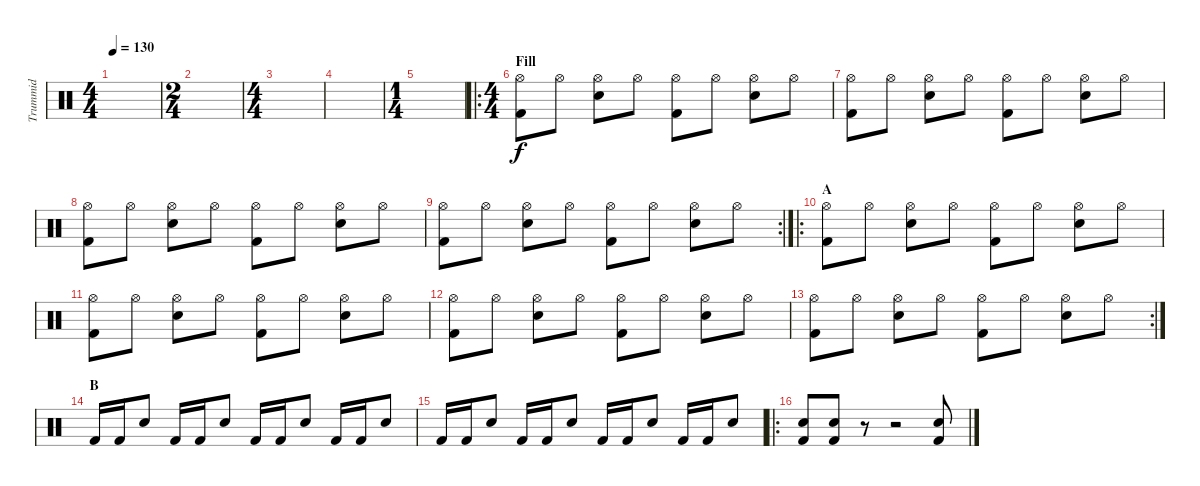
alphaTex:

\track ("Trummid" "Trummid") {instrument percussion}
\staff {score}
\articulation defaults
\ts (4 4)
\tempo 130
\clef neutral
\ks c
|
\ts (2 4)
|
\ts (4 4)
|
|
\ts (1 4)
|
\ro
\ts (4 4)
\section ("" "Fill")
("Hi-Hat (open)" "Kick (hit) 2").8 "Hi-Hat (open)".8 ("Hi-Hat (open)" "Snare (hit) 2").8 "Hi-Hat (open)".8 ("Hi-Hat (open)" "Kick (hit) 2").8 "Hi-Hat (open)".8 ("Hi-Hat (open)" "Snare (hit) 2").8 "Hi-Hat (open)".8 |
("Hi-Hat (open)" "Kick (hit) 2").8 "Hi-Hat (open)".8 ("Hi-Hat (open)" "Snare (hit) 2").8 "Hi-Hat (open)".8 ("Hi-Hat (open)" "Kick (hit) 2").8 "Hi-Hat (open)".8 ("Hi-Hat (open)" "Snare (hit) 2").8 "Hi-Hat (open)".8 |
("Hi-Hat (open)" "Kick (hit) 2").8 "Hi-Hat (open)".8 ("Hi-Hat (open)" "Snare (hit) 2").8 "Hi-Hat (open)".8 ("Hi-Hat (open)" "Kick (hit) 2").8 "Hi-Hat (open)".8 ("Hi-Hat (open)" "Snare (hit) 2").8 "Hi-Hat (open)".8 |
\rc 2
("Hi-Hat (open)" "Kick (hit) 2").8 "Hi-Hat (open)".8 ("Hi-Hat (open)" "Snare (hit) 2").8 "Hi-Hat (open)".8 ("Hi-Hat (open)" "Kick (hit) 2").8 "Hi-Hat (open)".8 ("Hi-Hat (open)" "Snare (hit) 2").8 "Hi-Hat (open)".8 |
\ro
\section ("" "A")
("Hi-Hat (open)" "Kick (hit) 2").8 "Hi-Hat (open)".8 ("Hi-Hat (open)" "Snare (hit) 2").8 "Hi-Hat (open)".8 ("Hi-Hat (open)" "Kick (hit) 2").8 "Hi-Hat (open)".8 ("Hi-Hat (open)" "Snare (hit) 2").8 "Hi-Hat (open)".8 |
("Hi-Hat (open)" "Kick (hit) 2").8 "Hi-Hat (open)".8 ("Hi-Hat (open)" "Snare (hit) 2").8 "Hi-Hat (open)".8 ("Hi-Hat (open)" "Kick (hit) 2").8 "Hi-Hat (open)".8 ("Hi-Hat (open)" "Snare (hit) 2").8 "Hi-Hat (open)".8 |
("Hi-Hat (open)" "Kick (hit) 2").8 "Hi-Hat (open)".8 ("Hi-Hat (open)" "Snare (hit) 2").8 "Hi-Hat (open)".8 ("Hi-Hat (open)" "Kick (hit) 2").8 "Hi-Hat (open)".8 ("Hi-Hat (open)" "Snare (hit) 2").8 "Hi-Hat (open)".8 |
\rc 2
("Hi-Hat (open)" "Kick (hit) 2").8 "Hi-Hat (open)".8 ("Hi-Hat (open)" "Snare (hit) 2").8 "Hi-Hat (open)".8 ("Hi-Hat (open)" "Kick (hit) 2").8 "Hi-Hat (open)".8 ("Hi-Hat (open)" "Snare (hit) 2").8 "Hi-Hat (open)".8 |
\section ("" "B")
"Kick (hit) 2".16 "Kick (hit) 2".16 "Snare (hit) 2".8 "Kick (hit) 2".16 "Kick (hit) 2".16 "Snare (hit) 2".8 "Kick (hit) 2".16 "Kick (hit) 2".16 "Snare (hit) 2".8 "Kick (hit) 2".16 "Kick (hit) 2".16 "Snare (hit) 2".8 |
"Kick (hit) 2".16 "Kick (hit) 2".16 "Snare (hit) 2".8 "Kick (hit) 2".16 "Kick (hit) 2".16 "Snare (hit) 2".8 "Kick (hit) 2".16 "Kick (hit) 2".16 "Snare (hit) 2".8 "Kick (hit) 2".16 "Kick (hit) 2".16 "Snare (hit) 2".8 |
\ro
("Snare (hit) 2" "Kick (hit) 2").8 ("Snare (hit) 2" "Kick (hit) 2").8 r.8 r.2 ("Snare (hit) 2" "Kick (hit) 2").8
